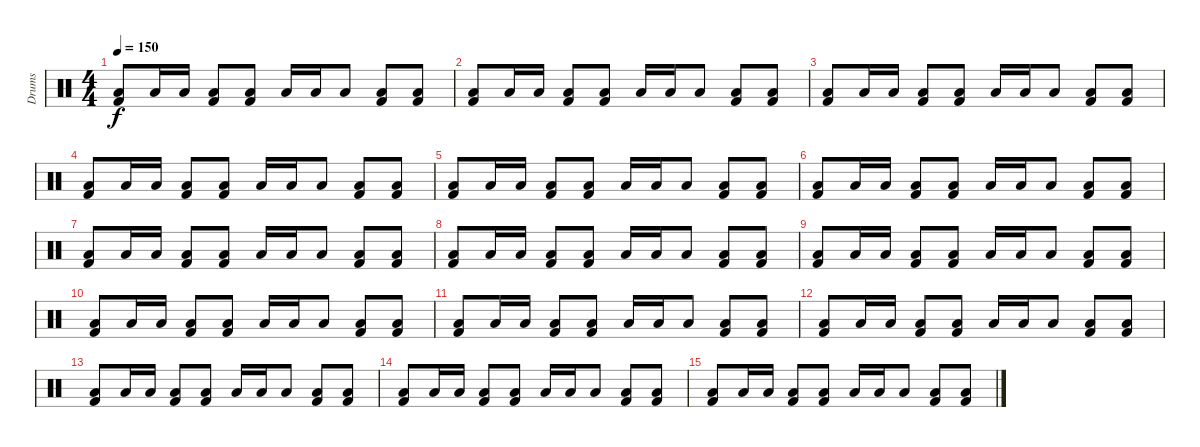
\track ("Drums" "Drums") {instrument percussion}
\staff {score}
\articulation defaults
\ts (4 4)
\tempo 150
\clef neutral
\ks c
("Low Tom (hit)" "Kick (hit) 2").8{dy f} "Low Tom (hit)".16 "Low Tom (hit)".16 ("Low Tom (hit)" "Kick (hit) 2").8 ("Low Tom (hit)" "Kick (hit) 2").8 "Low Tom (hit)".16 "Low Tom (hit)".16 "Low Tom (hit)".8 ("Low Tom (hit)" "Kick (hit) 2").8 ("Low Tom (hit)" "Kick (hit) 2").8 |
("Low Tom (hit)" "Kick (hit) 2").8 "Low Tom (hit)".16 "Low Tom (hit)".16 ("Low Tom (hit)" "Kick (hit) 2").8 ("Low Tom (hit)" "Kick (hit) 2").8 "Low Tom (hit)".16 "Low Tom (hit)".16 "Low Tom (hit)".8 ("Low Tom (hit)" "Kick (hit) 2").8 ("Low Tom (hit)" "Kick (hit) 2").8 |
("Low Tom (hit)" "Kick (hit) 2").8 "Low Tom (hit)".16 "Low Tom (hit)".16 ("Low Tom (hit)" "Kick (hit) 2").8 ("Low Tom (hit)" "Kick (hit) 2").8 "Low Tom (hit)".16 "Low Tom (hit)".16 "Low Tom (hit)".8 ("Low Tom (hit)" "Kick (hit) 2").8 ("Low Tom (hit)" "Kick (hit) 2").8 |
("Low Tom (hit)" "Kick (hit) 2").8 "Low Tom (hit)".16 "Low Tom (hit)".16 ("Low Tom (hit)" "Kick (hit) 2").8 ("Low Tom (hit)" "Kick (hit) 2").8 "Low Tom (hit)".16 "Low Tom (hit)".16 "Low Tom (hit)".8 ("Low Tom (hit)" "Kick (hit) 2").8 ("Low Tom (hit)" "Kick (hit) 2").8 |
("Low Tom (hit)" "Kick (hit) 2").8 "Low Tom (hit)".16 "Low Tom (hit)".16 ("Low Tom (hit)" "Kick (hit) 2").8 ("Low Tom (hit)" "Kick (hit) 2").8 "Low Tom (hit)".16 "Low Tom (hit)".16 "Low Tom (hit)".8 ("Low Tom (hit)" "Kick (hit) 2").8 ("Low Tom (hit)" "Kick (hit) 2").8 |
("Low Tom (hit)" "Kick (hit) 2").8 "Low Tom (hit)".16 "Low Tom (hit)".16 ("Low Tom (hit)" "Kick (hit) 2").8 ("Low Tom (hit)" "Kick (hit) 2").8 "Low Tom (hit)".16 "Low Tom (hit)".16 "Low Tom (hit)".8 ("Low Tom (hit)" "Kick (hit) 2").8 ("Low Tom (hit)" "Kick (hit) 2").8 |
("Low Tom (hit)" "Kick (hit) 2").8 "Low Tom (hit)".16 "Low Tom (hit)".16 ("Low Tom (hit)" "Kick (hit) 2").8 ("Low Tom (hit)" "Kick (hit) 2").8 "Low Tom (hit)".16 "Low Tom (hit)".16 "Low Tom (hit)".8 ("Low Tom (hit)" "Kick (hit) 2").8 ("Low Tom (hit)" "Kick (hit) 2").8 |
("Low Tom (hit)" "Kick (hit) 2").8 "Low Tom (hit)".16 "Low Tom (hit)".16 ("Low Tom (hit)" "Kick (hit) 2").8 ("Low Tom (hit)" "Kick (hit) 2").8 "Low Tom (hit)".16 "Low Tom (hit)".16 "Low Tom (hit)".8 ("Low Tom (hit)" "Kick (hit) 2").8 ("Low Tom (hit)" "Kick (hit) 2").8 |
("Low Tom (hit)" "Kick (hit) 2").8 "Low Tom (hit)".16 "Low Tom (hit)".16 ("Low Tom (hit)" "Kick (hit) 2").8 ("Low Tom (hit)" "Kick (hit) 2").8 "Low Tom (hit)".16 "Low Tom (hit)".16 "Low Tom (hit)".8 ("Low Tom (hit)" "Kick (hit) 2").8 ("Low Tom (hit)" "Kick (hit) 2").8 |
("Low Tom (hit)" "Kick (hit) 2").8{volume 0} "Low Tom (hit)".16 "Low Tom (hit)".16 ("Low Tom (hit)" "Kick (hit) 2").8 ("Low Tom (hit)" "Kick (hit) 2").8 "Low Tom (hit)".16 "Low Tom (hit)".16 "Low Tom (hit)".8 ("Low Tom (hit)" "Kick (hit) 2").8 ("Low Tom (hit)" "Kick (hit) 2").8 |
("Low Tom (hit)" "Kick (hit) 2").8 "Low Tom (hit)".16 "Low Tom (hit)".16 ("Low Tom (hit)" "Kick (hit) 2").8 ("Low Tom (hit)" "Kick (hit) 2").8 "Low Tom (hit)".16 "Low Tom (hit)".16 "Low Tom (hit)".8 ("Low Tom (hit)" "Kick (hit) 2").8 ("Low Tom (hit)" "Kick (hit) 2").8 |
("Low Tom (hit)" "Kick (hit) 2").8 "Low Tom (hit)".16 "Low Tom (hit)".16 ("Low Tom (hit)" "Kick (hit) 2").8 ("Low Tom (hit)" "Kick (hit) 2").8 "Low Tom (hit)".16 "Low Tom (hit)".16 "Low Tom (hit)".8 ("Low Tom (hit)" "Kick (hit) 2").8 ("Low Tom (hit)" "Kick (hit) 2").8 |
("Low Tom (hit)" "Kick (hit) 2").8 "Low Tom (hit)".16 "Low Tom (hit)".16 ("Low Tom (hit)" "Kick (hit) 2").8 ("Low Tom (hit)" "Kick (hit) 2").8 "Low Tom (hit)".16 "Low Tom (hit)".16 "Low Tom (hit)".8 ("Low Tom (hit)" "Kick (hit) 2").8 ("Low Tom (hit)" "Kick (hit) 2").8 |
("Low Tom (hit)" "Kick (hit) 2").8 "Low Tom (hit)".16 "Low Tom (hit)".16 ("Low Tom (hit)" "Kick (hit) 2").8 ("Low Tom (hit)" "Kick (hit) 2").8 "Low Tom (hit)".16 "Low Tom (hit)".16 "Low Tom (hit)".8 ("Low Tom (hit)" "Kick (hit) 2").8 ("Low Tom (hit)" "Kick (hit) 2").8 |
("Low Tom (hit)" "Kick (hit) 2").8 "Low Tom (hit)".16 "Low Tom (hit)".16 ("Low Tom (hit)" "Kick (hit) 2").8 ("Low Tom (hit)" "Kick (hit) 2").8 "Low Tom (hit)".16 "Low Tom (hit)".16 "Low Tom (hit)".8 ("Low Tom (hit)" "Kick (hit) 2").8 ("Low Tom (hit)" "Kick (hit) 2").8
